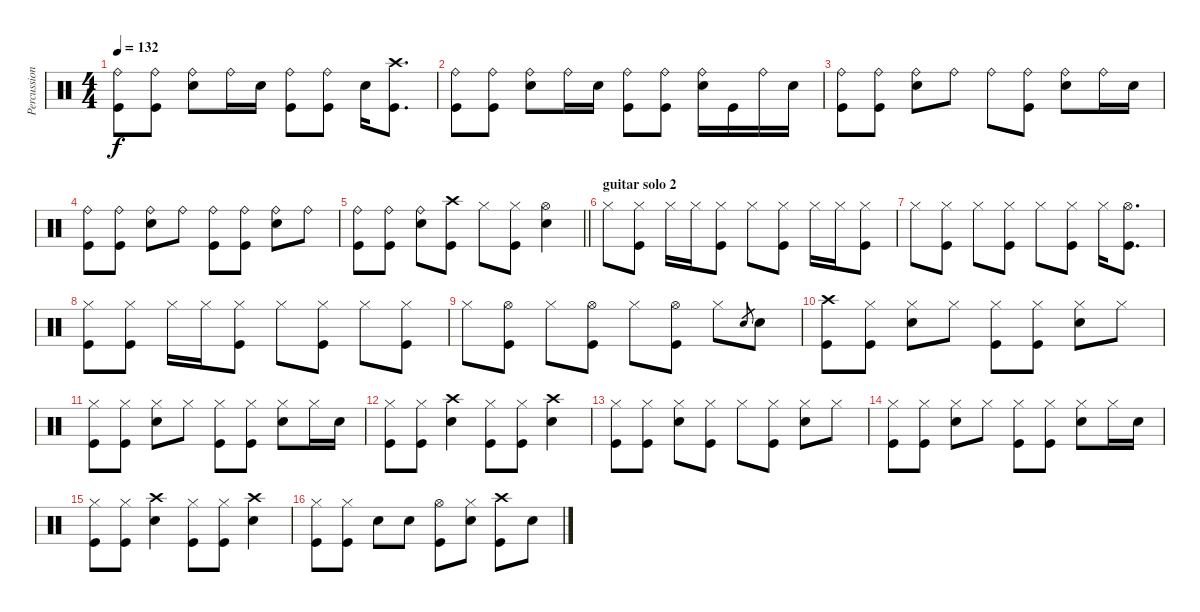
\track ("Percussion" "Percussion") {instrument percussion}
\staff {score}
\articulation defaults
\ts (4 4)
\tempo 132
\clef neutral
\ks c
("Kick (hit)" "Ride (bell)").8{dy f} ("Kick (hit)" "Ride (bell)").8 ("Snare (hit) 2" "Ride (bell)").8 "Ride (bell)".16 "Snare (hit) 2".16 ("Ride (bell)" "Kick (hit)").8 ("Ride (bell)" "Kick (hit)").8 "Snare (hit) 2".16 ("Crash high (hit)" "Kick (hit)").8{d} |
("Ride (bell)" "Kick (hit)").8 ("Ride (bell)" "Kick (hit)").8 ("Ride (bell)" "Snare (hit) 2").8 "Ride (bell)".16 "Snare (hit) 2".16 ("Kick (hit)" "Ride (bell)").8 ("Ride (bell)" "Kick (hit)").8 ("Snare (hit) 2" "Ride (bell)").16 "Kick (hit)".16 "Ride (bell)".16 "Snare (hit) 2".16 |
("Ride (bell)" "Kick (hit)").8 ("Ride (bell)" "Kick (hit)").8 ("Ride (bell)" "Snare (hit) 2").8 "Ride (bell)".8 "Ride (bell)".8 ("Ride (bell)" "Kick (hit)").8 ("Ride (bell)" "Snare (hit) 2").8 "Ride (bell)".16 "Snare (hit) 2".16 |
("Kick (hit)" "Ride (bell)").8 ("Kick (hit)" "Ride (bell)").8 ("Snare (hit) 2" "Ride (bell)").8 "Ride (bell)".8 ("Kick (hit)" "Ride (bell)").8 ("Kick (hit)" "Ride (bell)").8 ("Snare (hit) 2" "Ride (bell)").8 "Ride (bell)".8 |
\barLineRight lightlight
("Ride (bell)" "Kick (hit)").8 ("Ride (bell)" "Kick (hit)").8 ("Ride (bell)" "Snare (hit) 2").8 ("Crash high (hit)" "Kick (hit)").8 "Hi-Hat (closed)".8 ("Kick (hit)" "Hi-Hat (closed)").8 ("Snare (hit) 2" "Hi-Hat (open)").4 |
\section ("" "guitar solo 2")
"Hi-Hat (closed)".8 ("Hi-Hat (closed)" "Kick (hit)").8 "Hi-Hat (closed)".16 "Hi-Hat (closed)".16 ("Hi-Hat (closed)" "Kick (hit)").8 "Hi-Hat (closed)".8 ("Hi-Hat (closed)" "Kick (hit)").8 "Hi-Hat (closed)".16 "Hi-Hat (closed)".16 ("Hi-Hat (closed)" "Kick (hit)").8 |
"Hi-Hat (closed)".8 ("Hi-Hat (closed)" "Kick (hit)").8 "Hi-Hat (closed)".8 ("Hi-Hat (closed)" "Kick (hit)").8 "Hi-Hat (closed)".8 ("Hi-Hat (closed)" "Kick (hit)").8 "Hi-Hat (closed)".16 ("Hi-Hat (open)" "Kick (hit)").8{d} |
("Hi-Hat (closed)" "Kick (hit)").8 ("Hi-Hat (closed)" "Kick (hit)").8 "Hi-Hat (closed)".16 "Hi-Hat (closed)".16 ("Hi-Hat (closed)" "Kick (hit)").8 "Hi-Hat (closed)".8 ("Hi-Hat (closed)" "Kick (hit)").8 "Hi-Hat (closed)".8 ("Hi-Hat (closed)" "Kick (hit)").8 |
"Hi-Hat (closed)".8 ("Hi-Hat (open)" "Kick (hit)").8 "Hi-Hat (closed)".8 ("Hi-Hat (open)" "Kick (hit)").8 "Hi-Hat (closed)".8 ("Hi-Hat (open)" "Kick (hit)").8 "Hi-Hat (closed)".8 "Snare (hit) 2".8{gr} "Snare (hit) 2".8 |
("Crash high (hit)" "Kick (hit)").8 ("Hi-Hat (closed)" "Kick (hit)").8 ("Hi-Hat (closed)" "Snare (hit) 2").8 "Hi-Hat (closed)".8 ("Hi-Hat (closed)" "Kick (hit)").8 ("Hi-Hat (closed)" "Kick (hit)").8 ("Hi-Hat (closed)" "Snare (hit) 2").8 "Hi-Hat (closed)".8 |
("Kick (hit)" "Hi-Hat (closed)").8 ("Kick (hit)" "Hi-Hat (closed)").8 ("Snare (hit) 2" "Hi-Hat (closed)").8 "Hi-Hat (closed)".8 ("Kick (hit)" "Hi-Hat (closed)").8 ("Kick (hit)" "Hi-Hat (closed)").8 ("Snare (hit) 2" "Hi-Hat (closed)").8 "Hi-Hat (closed)".16 "Snare (hit) 2".16 |
("Hi-Hat (closed)" "Kick (hit)").8 ("Hi-Hat (closed)" "Kick (hit)").8 ("Crash high (hit)" "Snare (hit) 2").4 ("Hi-Hat (closed)" "Kick (hit)").8 ("Hi-Hat (closed)" "Kick (hit)").8 ("Crash high (hit)" "Snare (hit) 2").4 |
("Kick (hit)" "Hi-Hat (closed)").8 ("Kick (hit)" "Hi-Hat (closed)").8 ("Snare (hit) 2" "Hi-Hat (closed)").8 ("Kick (hit)" "Hi-Hat (closed)").8 "Hi-Hat (closed)".8 ("Kick (hit)" "Hi-Hat (closed)").8 ("Snare (hit) 2" "Hi-Hat (closed)").8 "Hi-Hat (closed)".8 |
("Hi-Hat (closed)" "Kick (hit)").8 ("Hi-Hat (closed)" "Kick (hit)").8 ("Hi-Hat (closed)" "Snare (hit) 2").8 "Hi-Hat (closed)".8 ("Hi-Hat (closed)" "Kick (hit)").8 ("Hi-Hat (closed)" "Kick (hit)").8 ("Hi-Hat (closed)" "Snare (hit) 2").8 "Hi-Hat (closed)".16 "Snare (hit) 2".16 |
("Hi-Hat (closed)" "Kick (hit)").8 ("Kick (hit)" "Hi-Hat (closed)").8 ("Crash high (hit)" "Snare (hit) 2").4 ("Hi-Hat (closed)" "Kick (hit)").8 ("Kick (hit)" "Hi-Hat (closed)").8 ("Crash high (hit)" "Snare (hit) 2").4 |
("Hi-Hat (closed)" "Kick (hit)").8 ("Kick (hit)" "Hi-Hat (closed)").8 "Snare (hit) 2".8 "Snare (hit) 2".8 ("Hi-Hat (open)" "Kick (hit)").8 ("Snare (hit) 2" "Hi-Hat (closed)").8 ("Crash high (hit)" "Kick (hit)").8 "Snare (hit) 2".8
